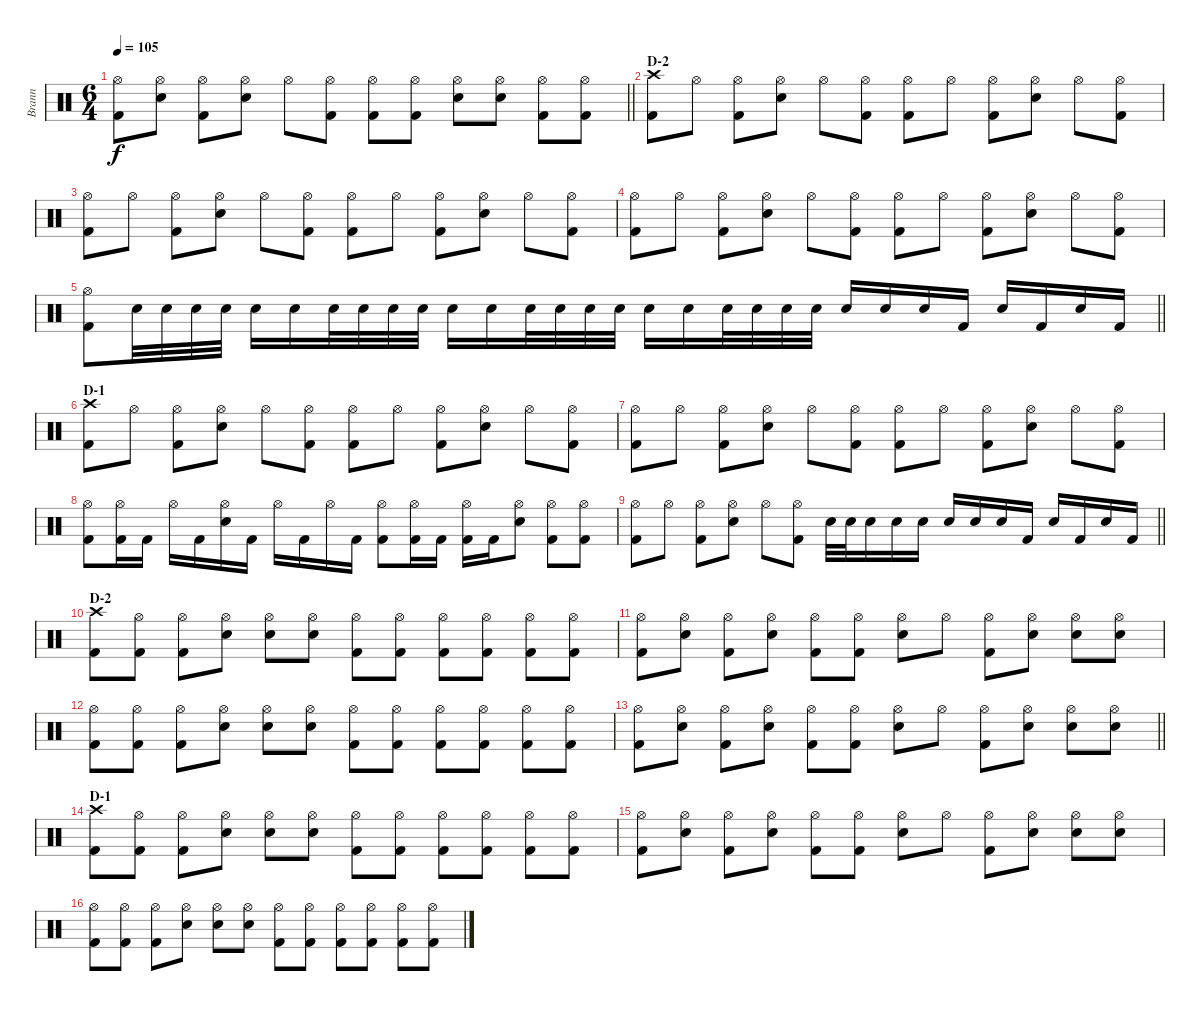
\track ("Brann" "Brann") {instrument percussion}
\staff {score}
\articulation defaults
\ts (6 4)
\tempo 105
\clef neutral
\barLineRight lightlight
\ks c
("Hi-Hat (open)" "Kick (hit) 2").8{dy f} ("Hi-Hat (open)" "Snare (hit) 2").8 ("Hi-Hat (open)" "Kick (hit) 2").8 ("Hi-Hat (open)" "Snare (hit) 2").8 "Hi-Hat (open)".8 ("Hi-Hat (open)" "Kick (hit) 2").8 ("Hi-Hat (open)" "Kick (hit) 2").8 ("Hi-Hat (open)" "Kick (hit) 2").8 ("Hi-Hat (open)" "Snare (hit) 2").8 ("Hi-Hat (open)" "Snare (hit) 2").8 ("Hi-Hat (open)" "Kick (hit) 2").8 ("Hi-Hat (open)" "Kick (hit) 2").8 |
\section ("" "D-2")
("Crash high (hit)" "Kick (hit) 2").8 "Hi-Hat (open)".8 ("Hi-Hat (open)" "Kick (hit) 2").8 ("Hi-Hat (open)" "Snare (hit) 2").8 "Hi-Hat (open)".8 ("Hi-Hat (open)" "Kick (hit) 2").8 ("Hi-Hat (open)" "Kick (hit) 2").8 "Hi-Hat (open)".8 ("Hi-Hat (open)" "Kick (hit) 2").8 ("Hi-Hat (open)" "Snare (hit) 2").8 "Hi-Hat (open)".8 ("Hi-Hat (open)" "Kick (hit) 2").8 |
("Hi-Hat (open)" "Kick (hit) 2").8 "Hi-Hat (open)".8 ("Hi-Hat (open)" "Kick (hit) 2").8 ("Hi-Hat (open)" "Snare (hit) 2").8 "Hi-Hat (open)".8 ("Hi-Hat (open)" "Kick (hit) 2").8 ("Hi-Hat (open)" "Kick (hit) 2").8 "Hi-Hat (open)".8 ("Hi-Hat (open)" "Kick (hit) 2").8 ("Hi-Hat (open)" "Snare (hit) 2").8 "Hi-Hat (open)".8 ("Hi-Hat (open)" "Kick (hit) 2").8 |
("Hi-Hat (open)" "Kick (hit) 2").8 "Hi-Hat (open)".8 ("Hi-Hat (open)" "Kick (hit) 2").8 ("Hi-Hat (open)" "Snare (hit) 2").8 "Hi-Hat (open)".8 ("Hi-Hat (open)" "Kick (hit) 2").8 ("Hi-Hat (open)" "Kick (hit) 2").8 "Hi-Hat (open)".8 ("Hi-Hat (open)" "Kick (hit) 2").8 ("Hi-Hat (open)" "Snare (hit) 2").8 "Hi-Hat (open)".8 ("Hi-Hat (open)" "Kick (hit) 2").8 |
\barLineRight lightlight
("Hi-Hat (open)" "Kick (hit) 2").8 "Snare (hit) 2".32 "Snare (hit) 2".32 "Snare (hit) 2".32 "Snare (hit) 2".32 "Snare (hit) 2".16 "Snare (hit) 2".16 "Snare (hit) 2".32 "Snare (hit) 2".32 "Snare (hit) 2".32 "Snare (hit) 2".32 "Snare (hit) 2".16 "Snare (hit) 2".16 "Snare (hit) 2".32 "Snare (hit) 2".32 "Snare (hit) 2".32 "Snare (hit) 2".32 "Snare (hit) 2".16 "Snare (hit) 2".16 "Snare (hit) 2".32 "Snare (hit) 2".32 "Snare (hit) 2".32 "Snare (hit) 2".32 "Snare (hit) 2".16 "Snare (hit) 2".16 "Electric Snare (hit)".16 "Kick (hit) 2".16 "Snare (hit) 2".16 "Kick (hit) 2".16 "Electric Snare (hit)".16 "Kick (hit) 2".16 |
\section ("" "D-1")
("Crash high (hit)" "Kick (hit) 2").8 "Hi-Hat (open)".8 ("Hi-Hat (open)" "Kick (hit) 2").8 ("Hi-Hat (open)" "Snare (hit) 2").8 "Hi-Hat (open)".8 ("Hi-Hat (open)" "Kick (hit) 2").8 ("Hi-Hat (open)" "Kick (hit) 2").8 "Hi-Hat (open)".8 ("Hi-Hat (open)" "Kick (hit) 2").8 ("Hi-Hat (open)" "Snare (hit) 2").8 "Hi-Hat (open)".8 ("Hi-Hat (open)" "Kick (hit) 2").8 |
("Hi-Hat (open)" "Kick (hit) 2").8 "Hi-Hat (open)".8 ("Hi-Hat (open)" "Kick (hit) 2").8 ("Hi-Hat (open)" "Snare (hit) 2").8 "Hi-Hat (open)".8 ("Hi-Hat (open)" "Kick (hit) 2").8 ("Hi-Hat (open)" "Kick (hit) 2").8 "Hi-Hat (open)".8 ("Hi-Hat (open)" "Kick (hit) 2").8 ("Hi-Hat (open)" "Snare (hit) 2").8 "Hi-Hat (open)".8 ("Hi-Hat (open)" "Kick (hit) 2").8 |
("Hi-Hat (open)" "Kick (hit) 2").8 ("Hi-Hat (open)" "Kick (hit) 2").16 "Kick (hit) 2".16 "Hi-Hat (open)".16 "Kick (hit) 2".16 ("Hi-Hat (open)" "Snare (hit) 2").16 "Kick (hit) 2".16 "Hi-Hat (open)".16 "Kick (hit) 2".16 "Hi-Hat (open)".16 "Kick (hit) 2".16 ("Hi-Hat (open)" "Kick (hit) 2").8 ("Hi-Hat (open)" "Kick (hit) 2").16 "Kick (hit) 2".16 ("Hi-Hat (open)" "Kick (hit) 2").16 "Kick (hit) 2".16 ("Hi-Hat (open)" "Snare (hit) 2").8 ("Hi-Hat (open)" "Kick (hit) 2").8 ("Hi-Hat (open)" "Kick (hit) 2").8 |
\barLineRight lightlight
("Hi-Hat (open)" "Kick (hit) 2").8 "Hi-Hat (open)".8 ("Hi-Hat (open)" "Kick (hit) 2").8 ("Hi-Hat (open)" "Snare (hit) 2").8 "Hi-Hat (open)".8 ("Hi-Hat (open)" "Kick (hit) 2").8 "Electric Snare (hit)".32 "Snare (hit) 2".32 "Snare (hit) 2".16 "Snare (hit) 2".16 "Snare (hit) 2".16 "Snare (hit) 2".16 "Snare (hit) 2".16 "Snare (hit) 2".16 "Kick (hit) 2".16 "Snare (hit) 2".16 "Kick (hit) 2".16 "Snare (hit) 2".16 "Kick (hit) 2".16 |
\section ("" "D-2")
("Crash high (hit)" "Kick (hit) 2").8 ("Hi-Hat (open)" "Kick (hit) 2").8 ("Hi-Hat (open)" "Kick (hit) 2").8 ("Hi-Hat (open)" "Snare (hit) 2").8 ("Hi-Hat (open)" "Snare (hit) 2").8 ("Hi-Hat (open)" "Snare (hit) 2").8 ("Hi-Hat (open)" "Kick (hit) 2").8 ("Hi-Hat (open)" "Kick (hit) 2").8 ("Hi-Hat (open)" "Kick (hit) 2").8 ("Hi-Hat (open)" "Kick (hit) 2").8 ("Hi-Hat (open)" "Kick (hit) 2").8 ("Hi-Hat (open)" "Kick (hit) 2").8 |
("Hi-Hat (open)" "Kick (hit) 2").8 ("Hi-Hat (open)" "Snare (hit) 2").8 ("Hi-Hat (open)" "Kick (hit) 2").8 ("Hi-Hat (open)" "Snare (hit) 2").8 ("Hi-Hat (open)" "Kick (hit) 2").8 ("Hi-Hat (open)" "Kick (hit) 2").8 ("Hi-Hat (open)" "Snare (hit) 2").8 "Hi-Hat (open)".8 ("Hi-Hat (open)" "Kick (hit) 2").8 ("Hi-Hat (open)" "Snare (hit) 2").8 ("Hi-Hat (open)" "Snare (hit) 2").8 ("Hi-Hat (open)" "Snare (hit) 2").8 |
("Hi-Hat (open)" "Kick (hit) 2").8 ("Hi-Hat (open)" "Kick (hit) 2").8 ("Hi-Hat (open)" "Kick (hit) 2").8 ("Hi-Hat (open)" "Snare (hit) 2").8 ("Hi-Hat (open)" "Snare (hit) 2").8 ("Hi-Hat (open)" "Snare (hit) 2").8 ("Hi-Hat (open)" "Kick (hit) 2").8 ("Hi-Hat (open)" "Kick (hit) 2").8 ("Hi-Hat (open)" "Kick (hit) 2").8 ("Hi-Hat (open)" "Kick (hit) 2").8 ("Hi-Hat (open)" "Kick (hit) 2").8 ("Hi-Hat (open)" "Kick (hit) 2").8 |
\barLineRight lightlight
("Hi-Hat (open)" "Kick (hit) 2").8 ("Hi-Hat (open)" "Snare (hit) 2").8 ("Hi-Hat (open)" "Kick (hit) 2").8 ("Hi-Hat (open)" "Snare (hit) 2").8 ("Hi-Hat (open)" "Kick (hit) 2").8 ("Hi-Hat (open)" "Kick (hit) 2").8 ("Hi-Hat (open)" "Snare (hit) 2").8 "Hi-Hat (open)".8 ("Hi-Hat (open)" "Kick (hit) 2").8 ("Hi-Hat (open)" "Snare (hit) 2").8 ("Hi-Hat (open)" "Snare (hit) 2").8 ("Hi-Hat (open)" "Snare (hit) 2").8 |
\section ("" "D-1")
("Crash high (hit)" "Kick (hit) 2").8 ("Hi-Hat (open)" "Kick (hit) 2").8 ("Hi-Hat (open)" "Kick (hit) 2").8 ("Hi-Hat (open)" "Snare (hit) 2").8 ("Hi-Hat (open)" "Snare (hit) 2").8 ("Hi-Hat (open)" "Snare (hit) 2").8 ("Hi-Hat (open)" "Kick (hit) 2").8 ("Hi-Hat (open)" "Kick (hit) 2").8 ("Hi-Hat (open)" "Kick (hit) 2").8 ("Hi-Hat (open)" "Kick (hit) 2").8 ("Hi-Hat (open)" "Kick (hit) 2").8 ("Hi-Hat (open)" "Kick (hit) 2").8 |
("Hi-Hat (open)" "Kick (hit) 2").8 ("Hi-Hat (open)" "Snare (hit) 2").8 ("Hi-Hat (open)" "Kick (hit) 2").8 ("Hi-Hat (open)" "Snare (hit) 2").8 ("Hi-Hat (open)" "Kick (hit) 2").8 ("Hi-Hat (open)" "Kick (hit) 2").8 ("Hi-Hat (open)" "Snare (hit) 2").8 "Hi-Hat (open)".8 ("Hi-Hat (open)" "Kick (hit) 2").8 ("Hi-Hat (open)" "Snare (hit) 2").8 ("Hi-Hat (open)" "Snare (hit) 2").8 ("Hi-Hat (open)" "Snare (hit) 2").8 |
("Hi-Hat (open)" "Kick (hit) 2").8 ("Hi-Hat (open)" "Kick (hit) 2").8 ("Hi-Hat (open)" "Kick (hit) 2").8 ("Hi-Hat (open)" "Snare (hit) 2").8 ("Hi-Hat (open)" "Snare (hit) 2").8 ("Hi-Hat (open)" "Snare (hit) 2").8 ("Hi-Hat (open)" "Kick (hit) 2").8 ("Hi-Hat (open)" "Kick (hit) 2").8 ("Hi-Hat (open)" "Kick (hit) 2").8 ("Hi-Hat (open)" "Kick (hit) 2").8 ("Hi-Hat (open)" "Kick (hit) 2").8 ("Hi-Hat (open)" "Kick (hit) 2").8
